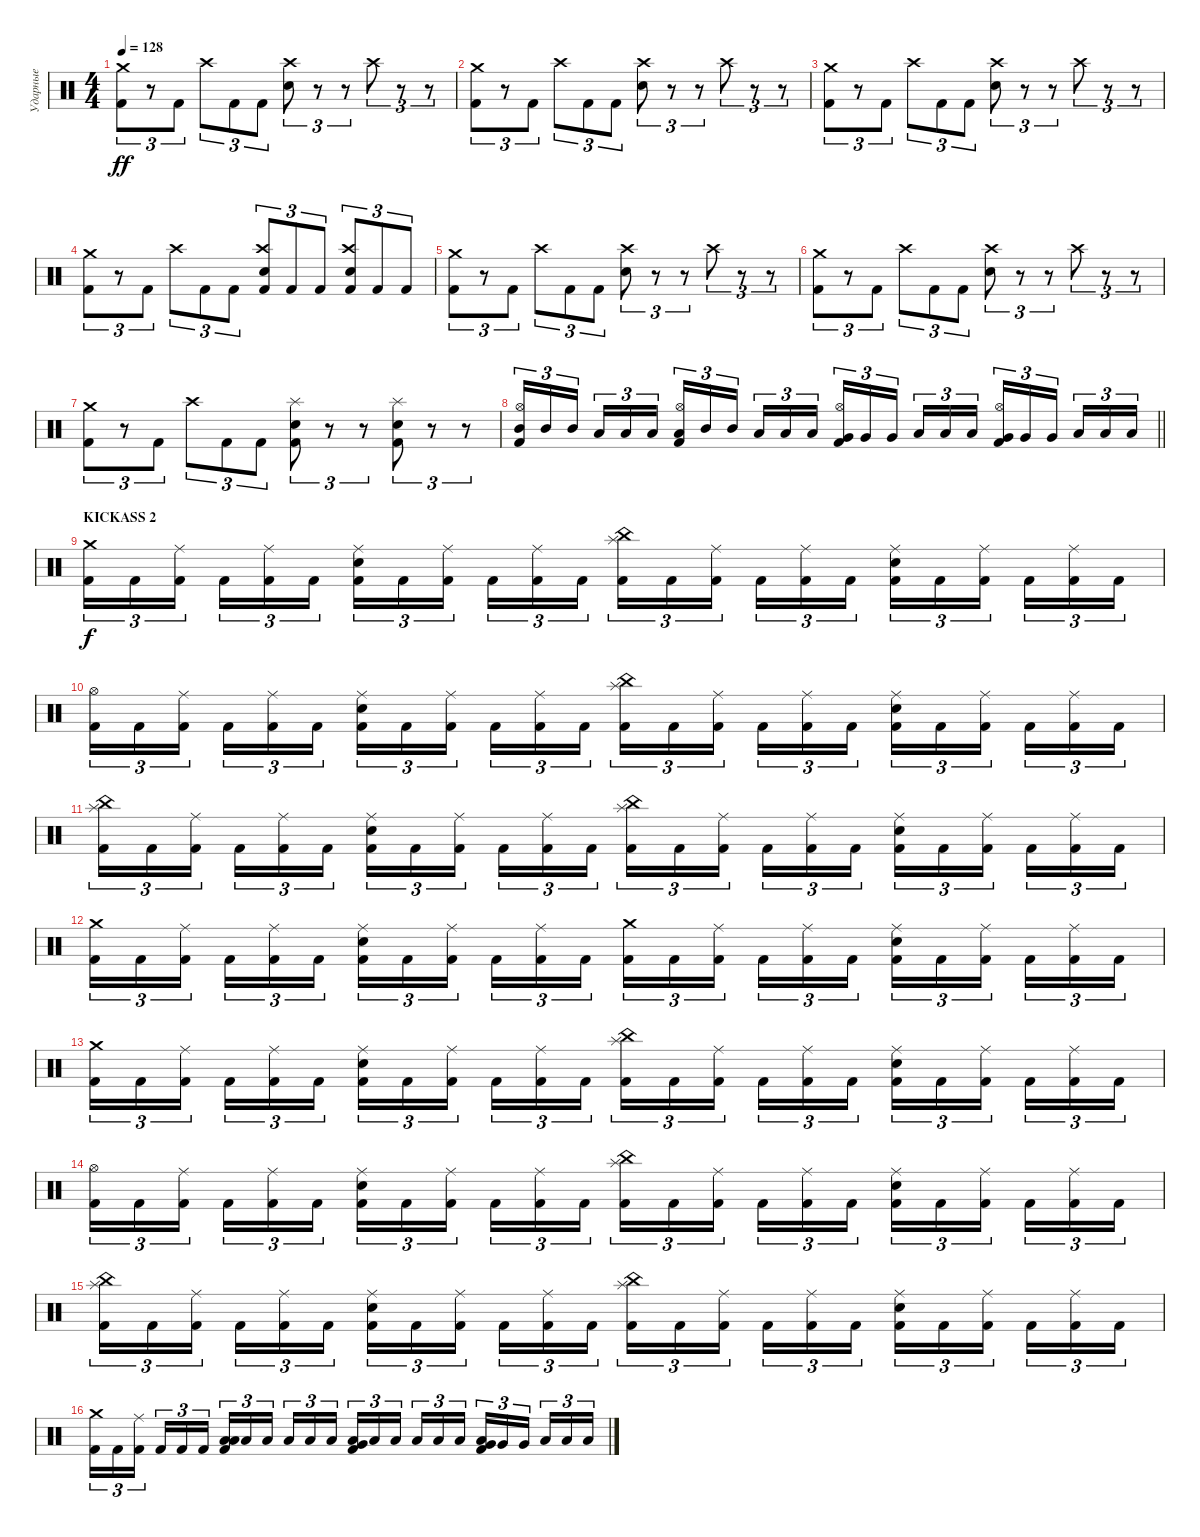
\track ("Ударные" "Ударные") {instrument percussion}
\staff {score}
\articulation defaults
\ts (4 4)
\tempo 128
\clef neutral
\ks c
("Crash medium (hit)" "Kick (hit) 2").8{tu (3 2) dy ff} r.8{tu (3 2)} "Kick (hit) 2".8{tu (3 2)} "Crash high (hit)".8{tu (3 2)} "Kick (hit) 2".8{tu (3 2)} "Kick (hit) 2".8{tu (3 2)} ("Crash high (hit)" "Electric Snare (hit)").8{tu (3 2)} r.8{tu (3 2)} r.8{tu (3 2)} "Crash high (hit)".8{tu (3 2)} r.8{tu (3 2)} r.8{tu (3 2)} |
("Crash medium (hit)" "Kick (hit) 2").8{tu (3 2)} r.8{tu (3 2)} "Kick (hit) 2".8{tu (3 2)} "Crash high (hit)".8{tu (3 2)} "Kick (hit) 2".8{tu (3 2)} "Kick (hit) 2".8{tu (3 2)} ("Crash high (hit)" "Electric Snare (hit)").8{tu (3 2)} r.8{tu (3 2)} r.8{tu (3 2)} "Crash high (hit)".8{tu (3 2)} r.8{tu (3 2)} r.8{tu (3 2)} |
("Crash medium (hit)" "Kick (hit) 2").8{tu (3 2)} r.8{tu (3 2)} "Kick (hit) 2".8{tu (3 2)} "Crash high (hit)".8{tu (3 2)} "Kick (hit) 2".8{tu (3 2)} "Kick (hit) 2".8{tu (3 2)} ("Crash high (hit)" "Electric Snare (hit)").8{tu (3 2)} r.8{tu (3 2)} r.8{tu (3 2)} "Crash high (hit)".8{tu (3 2)} r.8{tu (3 2)} r.8{tu (3 2)} |
("Crash medium (hit)" "Kick (hit) 2").8{tu (3 2)} r.8{tu (3 2)} "Kick (hit) 2".8{tu (3 2)} "Crash high (hit)".8{tu (3 2)} "Kick (hit) 2".8{tu (3 2)} "Kick (hit) 2".8{tu (3 2)} ("Crash high (hit)" "Electric Snare (hit)" "Kick (hit) 2").8{tu (3 2)} "Kick (hit) 2".8{tu (3 2)} "Kick (hit) 2".8{tu (3 2)} ("Crash high (hit)" "Electric Snare (hit)" "Kick (hit) 2").8{tu (3 2)} "Kick (hit) 2".8{tu (3 2)} "Kick (hit) 2".8{tu (3 2)} |
("Crash medium (hit)" "Kick (hit) 2").8{tu (3 2)} r.8{tu (3 2)} "Kick (hit) 2".8{tu (3 2)} "Crash high (hit)".8{tu (3 2)} "Kick (hit) 2".8{tu (3 2)} "Kick (hit) 2".8{tu (3 2)} ("Crash high (hit)" "Electric Snare (hit)").8{tu (3 2)} r.8{tu (3 2)} r.8{tu (3 2)} "Crash high (hit)".8{tu (3 2)} r.8{tu (3 2)} r.8{tu (3 2)} |
("Crash medium (hit)" "Kick (hit) 2").8{tu (3 2)} r.8{tu (3 2)} "Kick (hit) 2".8{tu (3 2)} "Crash high (hit)".8{tu (3 2)} "Kick (hit) 2".8{tu (3 2)} "Kick (hit) 2".8{tu (3 2)} ("Crash high (hit)" "Electric Snare (hit)").8{tu (3 2)} r.8{tu (3 2)} r.8{tu (3 2)} "Crash high (hit)".8{tu (3 2)} r.8{tu (3 2)} r.8{tu (3 2)} |
("Crash medium (hit)" "Kick (hit) 2").8{tu (3 2)} r.8{tu (3 2)} "Kick (hit) 2".8{tu (3 2)} "Crash high (hit)".8{tu (3 2)} "Kick (hit) 2".8{tu (3 2)} "Kick (hit) 2".8{tu (3 2)} ("Splash (hit)" "Electric Snare (hit)" "Kick (hit) 2").8{tu (3 2)} r.8{tu (3 2)} r.8{tu (3 2)} ("Splash (hit)" "Electric Snare (hit)" "Kick (hit) 2").8{tu (3 2)} r.8{tu (3 2)} r.8{tu (3 2)} |
\barLineRight lightlight
("Hi-Hat (open)" "Mid Tom (hit)" "Kick (hit) 2").16{tu (3 2)} "Mid Tom (hit)".16{tu (3 2)} "Mid Tom (hit)".16{tu (3 2) beam splitsecondary} "Low Tom (hit)".16{tu (3 2)} "Low Tom (hit)".16{tu (3 2)} "Low Tom (hit)".16{tu (3 2)} ("Hi-Hat (open)" "Low Tom (hit)" "Kick (hit) 2").16{tu (3 2)} "Mid Tom (hit)".16{tu (3 2)} "Mid Tom (hit)".16{tu (3 2) beam splitsecondary} "Low Tom (hit)".16{tu (3 2)} "Low Tom (hit)".16{tu (3 2)} "Low Tom (hit)".16{tu (3 2)} ("Hi-Hat (open)" "Very Low Tom (hit)" "Kick (hit) 2").16{tu (3 2)} "Very Low Tom (hit)".16{tu (3 2)} "Very Low Tom (hit)".16{tu (3 2) beam splitsecondary} "Low Tom (hit)".16{tu (3 2)} "Low Tom (hit)".16{tu (3 2)} "Low Tom (hit)".16{tu (3 2)} ("Hi-Hat (open)" "Very Low Tom (hit)" "Kick (hit) 2").16{tu (3 2)} "Very Low Tom (hit)".16{tu (3 2)} "Very Low Tom (hit)".16{tu (3 2) beam splitsecondary} "Low Floor Tom (hit)".16{tu (3 2)} "Low Floor Tom (hit)".16{tu (3 2)} "Low Floor Tom (hit)".16{tu (3 2)} |
\section ("" "KICKASS 2")
("Crash medium (hit)" "Kick (hit) 2").16{tu (3 2) dy f} "Kick (hit) 2".16{tu (3 2)} ("Ride (middle)" "Kick (hit) 2").16{tu (3 2) beam splitsecondary} "Kick (hit) 2".16{tu (3 2)} ("Ride (middle)" "Kick (hit) 2").16{tu (3 2)} "Kick (hit) 2".16{tu (3 2)} ("Ride (middle)" "Electric Snare (hit)" "Kick (hit) 2").16{tu (3 2)} "Kick (hit) 2".16{tu (3 2)} ("Ride (middle)" "Kick (hit) 2").16{tu (3 2) beam splitsecondary} "Kick (hit) 2".16{tu (3 2)} ("Ride (middle)" "Kick (hit) 2").16{tu (3 2)} "Kick (hit) 2".16{tu (3 2)} ("China (hit)" "Splash (hit)" "Kick (hit) 2").16{tu (3 2)} "Kick (hit) 2".16{tu (3 2)} ("Ride (middle)" "Kick (hit) 2").16{tu (3 2) beam splitsecondary} "Kick (hit) 2".16{tu (3 2)} ("Ride (middle)" "Kick (hit) 2").16{tu (3 2)} "Kick (hit) 2".16{tu (3 2)} ("Ride (middle)" "Electric Snare (hit)" "Kick (hit) 2").16{tu (3 2)} "Kick (hit) 2".16{tu (3 2)} ("Ride (middle)" "Kick (hit) 2").16{tu (3 2) beam splitsecondary} "Kick (hit) 2".16{tu (3 2)} ("Ride (middle)" "Kick (hit) 2").16{tu (3 2)} "Kick (hit) 2".16{tu (3 2)} |
("Hi-Hat (open)" "Kick (hit) 2").16{tu (3 2)} "Kick (hit) 2".16{tu (3 2)} ("Ride (middle)" "Kick (hit) 2").16{tu (3 2) beam splitsecondary} "Kick (hit) 2".16{tu (3 2)} ("Ride (middle)" "Kick (hit) 2").16{tu (3 2)} "Kick (hit) 2".16{tu (3 2)} ("Ride (middle)" "Electric Snare (hit)" "Kick (hit) 2").16{tu (3 2)} "Kick (hit) 2".16{tu (3 2)} ("Ride (middle)" "Kick (hit) 2").16{tu (3 2) beam splitsecondary} "Kick (hit) 2".16{tu (3 2)} ("Ride (middle)" "Kick (hit) 2").16{tu (3 2)} "Kick (hit) 2".16{tu (3 2)} ("China (hit)" "Splash (hit)" "Kick (hit) 2").16{tu (3 2)} "Kick (hit) 2".16{tu (3 2)} ("Ride (middle)" "Kick (hit) 2").16{tu (3 2) beam splitsecondary} "Kick (hit) 2".16{tu (3 2)} ("Ride (middle)" "Kick (hit) 2").16{tu (3 2)} "Kick (hit) 2".16{tu (3 2)} ("Ride (middle)" "Electric Snare (hit)" "Kick (hit) 2").16{tu (3 2)} "Kick (hit) 2".16{tu (3 2)} ("Ride (middle)" "Kick (hit) 2").16{tu (3 2) beam splitsecondary} "Kick (hit) 2".16{tu (3 2)} ("Ride (middle)" "Kick (hit) 2").16{tu (3 2)} "Kick (hit) 2".16{tu (3 2)} |
("China (hit)" "Splash (hit)" "Kick (hit) 2").16{tu (3 2)} "Kick (hit) 2".16{tu (3 2)} ("Ride (middle)" "Kick (hit) 2").16{tu (3 2) beam splitsecondary} "Kick (hit) 2".16{tu (3 2)} ("Ride (middle)" "Kick (hit) 2").16{tu (3 2)} "Kick (hit) 2".16{tu (3 2)} ("Ride (middle)" "Electric Snare (hit)" "Kick (hit) 2").16{tu (3 2)} "Kick (hit) 2".16{tu (3 2)} ("Ride (middle)" "Kick (hit) 2").16{tu (3 2) beam splitsecondary} "Kick (hit) 2".16{tu (3 2)} ("Ride (middle)" "Kick (hit) 2").16{tu (3 2)} "Kick (hit) 2".16{tu (3 2)} ("China (hit)" "Splash (hit)" "Kick (hit) 2").16{tu (3 2)} "Kick (hit) 2".16{tu (3 2)} ("Ride (middle)" "Kick (hit) 2").16{tu (3 2) beam splitsecondary} "Kick (hit) 2".16{tu (3 2)} ("Ride (middle)" "Kick (hit) 2").16{tu (3 2)} "Kick (hit) 2".16{tu (3 2)} ("Ride (middle)" "Electric Snare (hit)" "Kick (hit) 2").16{tu (3 2)} "Kick (hit) 2".16{tu (3 2)} ("Ride (middle)" "Kick (hit) 2").16{tu (3 2) beam splitsecondary} "Kick (hit) 2".16{tu (3 2)} ("Ride (middle)" "Kick (hit) 2").16{tu (3 2)} "Kick (hit) 2".16{tu (3 2)} |
("Crash medium (hit)" "Kick (hit) 2").16{tu (3 2)} "Kick (hit) 2".16{tu (3 2)} ("Ride (middle)" "Kick (hit) 2").16{tu (3 2) beam splitsecondary} "Kick (hit) 2".16{tu (3 2)} ("Ride (middle)" "Kick (hit) 2").16{tu (3 2)} "Kick (hit) 2".16{tu (3 2)} ("Ride (middle)" "Electric Snare (hit)" "Kick (hit) 2").16{tu (3 2)} "Kick (hit) 2".16{tu (3 2)} ("Ride (middle)" "Kick (hit) 2").16{tu (3 2) beam splitsecondary} "Kick (hit) 2".16{tu (3 2)} ("Ride (middle)" "Kick (hit) 2").16{tu (3 2)} "Kick (hit) 2".16{tu (3 2)} ("Crash medium (hit)" "Kick (hit) 2").16{tu (3 2)} "Kick (hit) 2".16{tu (3 2)} ("Ride (middle)" "Kick (hit) 2").16{tu (3 2) beam splitsecondary} "Kick (hit) 2".16{tu (3 2)} ("Ride (middle)" "Kick (hit) 2").16{tu (3 2)} "Kick (hit) 2".16{tu (3 2)} ("Ride (middle)" "Electric Snare (hit)" "Kick (hit) 2").16{tu (3 2)} "Kick (hit) 2".16{tu (3 2)} ("Ride (middle)" "Kick (hit) 2").16{tu (3 2) beam splitsecondary} "Kick (hit) 2".16{tu (3 2)} ("Ride (middle)" "Kick (hit) 2").16{tu (3 2)} "Kick (hit) 2".16{tu (3 2)} |
("Crash medium (hit)" "Kick (hit) 2").16{tu (3 2)} "Kick (hit) 2".16{tu (3 2)} ("Ride (middle)" "Kick (hit) 2").16{tu (3 2) beam splitsecondary} "Kick (hit) 2".16{tu (3 2)} ("Ride (middle)" "Kick (hit) 2").16{tu (3 2)} "Kick (hit) 2".16{tu (3 2)} ("Ride (middle)" "Electric Snare (hit)" "Kick (hit) 2").16{tu (3 2)} "Kick (hit) 2".16{tu (3 2)} ("Ride (middle)" "Kick (hit) 2").16{tu (3 2) beam splitsecondary} "Kick (hit) 2".16{tu (3 2)} ("Ride (middle)" "Kick (hit) 2").16{tu (3 2)} "Kick (hit) 2".16{tu (3 2)} ("China (hit)" "Splash (hit)" "Kick (hit) 2").16{tu (3 2)} "Kick (hit) 2".16{tu (3 2)} ("Ride (middle)" "Kick (hit) 2").16{tu (3 2) beam splitsecondary} "Kick (hit) 2".16{tu (3 2)} ("Ride (middle)" "Kick (hit) 2").16{tu (3 2)} "Kick (hit) 2".16{tu (3 2)} ("Ride (middle)" "Electric Snare (hit)" "Kick (hit) 2").16{tu (3 2)} "Kick (hit) 2".16{tu (3 2)} ("Ride (middle)" "Kick (hit) 2").16{tu (3 2) beam splitsecondary} "Kick (hit) 2".16{tu (3 2)} ("Ride (middle)" "Kick (hit) 2").16{tu (3 2)} "Kick (hit) 2".16{tu (3 2)} |
("Hi-Hat (open)" "Kick (hit) 2").16{tu (3 2)} "Kick (hit) 2".16{tu (3 2)} ("Ride (middle)" "Kick (hit) 2").16{tu (3 2) beam splitsecondary} "Kick (hit) 2".16{tu (3 2)} ("Ride (middle)" "Kick (hit) 2").16{tu (3 2)} "Kick (hit) 2".16{tu (3 2)} ("Ride (middle)" "Electric Snare (hit)" "Kick (hit) 2").16{tu (3 2)} "Kick (hit) 2".16{tu (3 2)} ("Ride (middle)" "Kick (hit) 2").16{tu (3 2) beam splitsecondary} "Kick (hit) 2".16{tu (3 2)} ("Ride (middle)" "Kick (hit) 2").16{tu (3 2)} "Kick (hit) 2".16{tu (3 2)} ("China (hit)" "Splash (hit)" "Kick (hit) 2").16{tu (3 2)} "Kick (hit) 2".16{tu (3 2)} ("Ride (middle)" "Kick (hit) 2").16{tu (3 2) beam splitsecondary} "Kick (hit) 2".16{tu (3 2)} ("Ride (middle)" "Kick (hit) 2").16{tu (3 2)} "Kick (hit) 2".16{tu (3 2)} ("Ride (middle)" "Electric Snare (hit)" "Kick (hit) 2").16{tu (3 2)} "Kick (hit) 2".16{tu (3 2)} ("Ride (middle)" "Kick (hit) 2").16{tu (3 2) beam splitsecondary} "Kick (hit) 2".16{tu (3 2)} ("Ride (middle)" "Kick (hit) 2").16{tu (3 2)} "Kick (hit) 2".16{tu (3 2)} |
("China (hit)" "Splash (hit)" "Kick (hit) 2").16{tu (3 2)} "Kick (hit) 2".16{tu (3 2)} ("Ride (middle)" "Kick (hit) 2").16{tu (3 2) beam splitsecondary} "Kick (hit) 2".16{tu (3 2)} ("Ride (middle)" "Kick (hit) 2").16{tu (3 2)} "Kick (hit) 2".16{tu (3 2)} ("Ride (middle)" "Electric Snare (hit)" "Kick (hit) 2").16{tu (3 2)} "Kick (hit) 2".16{tu (3 2)} ("Ride (middle)" "Kick (hit) 2").16{tu (3 2) beam splitsecondary} "Kick (hit) 2".16{tu (3 2)} ("Ride (middle)" "Kick (hit) 2").16{tu (3 2)} "Kick (hit) 2".16{tu (3 2)} ("China (hit)" "Splash (hit)" "Kick (hit) 2").16{tu (3 2)} "Kick (hit) 2".16{tu (3 2)} ("Ride (middle)" "Kick (hit) 2").16{tu (3 2) beam splitsecondary} "Kick (hit) 2".16{tu (3 2)} ("Ride (middle)" "Kick (hit) 2").16{tu (3 2)} "Kick (hit) 2".16{tu (3 2)} ("Ride (middle)" "Electric Snare (hit)" "Kick (hit) 2").16{tu (3 2)} "Kick (hit) 2".16{tu (3 2)} ("Ride (middle)" "Kick (hit) 2").16{tu (3 2) beam splitsecondary} "Kick (hit) 2".16{tu (3 2)} ("Ride (middle)" "Kick (hit) 2").16{tu (3 2)} "Kick (hit) 2".16{tu (3 2)} |
("Crash medium (hit)" "Kick (hit) 2").16{tu (3 2)} "Kick (hit) 2".16{tu (3 2)} ("Ride (middle)" "Kick (hit) 2").16{tu (3 2) beam splitsecondary} "Kick (hit) 2".16{tu (3 2)} "Kick (hit) 2".16{tu (3 2)} "Kick (hit) 2".16{tu (3 2)} ("Low Floor Tom (hit)" "Low Tom (hit)" "Kick (hit) 2").16{tu (3 2)} "Low Tom (hit)".16{tu (3 2)} "Low Tom (hit)".16{tu (3 2) beam splitsecondary} "Low Tom (hit)".16{tu (3 2)} "Low Tom (hit)".16{tu (3 2)} "Low Tom (hit)".16{tu (3 2)} ("Very Low Tom (hit)" "Low Tom (hit)" "Kick (hit) 2").16{tu (3 2)} "Low Tom (hit)".16{tu (3 2)} "Low Tom (hit)".16{tu (3 2) beam splitsecondary} "Low Tom (hit)".16{tu (3 2)} "Low Tom (hit)".16{tu (3 2)} "Low Tom (hit)".16{tu (3 2)} ("Very Low Tom (hit)" "Low Floor Tom (hit)" "Kick (hit) 2").16{tu (3 2)} "Very Low Tom (hit)".16{tu (3 2)} "Very Low Tom (hit)".16{tu (3 2) beam splitsecondary} "Low Floor Tom (hit)".16{tu (3 2)} "Low Floor Tom (hit)".16{tu (3 2)} "Low Floor Tom (hit)".16{tu (3 2)}
